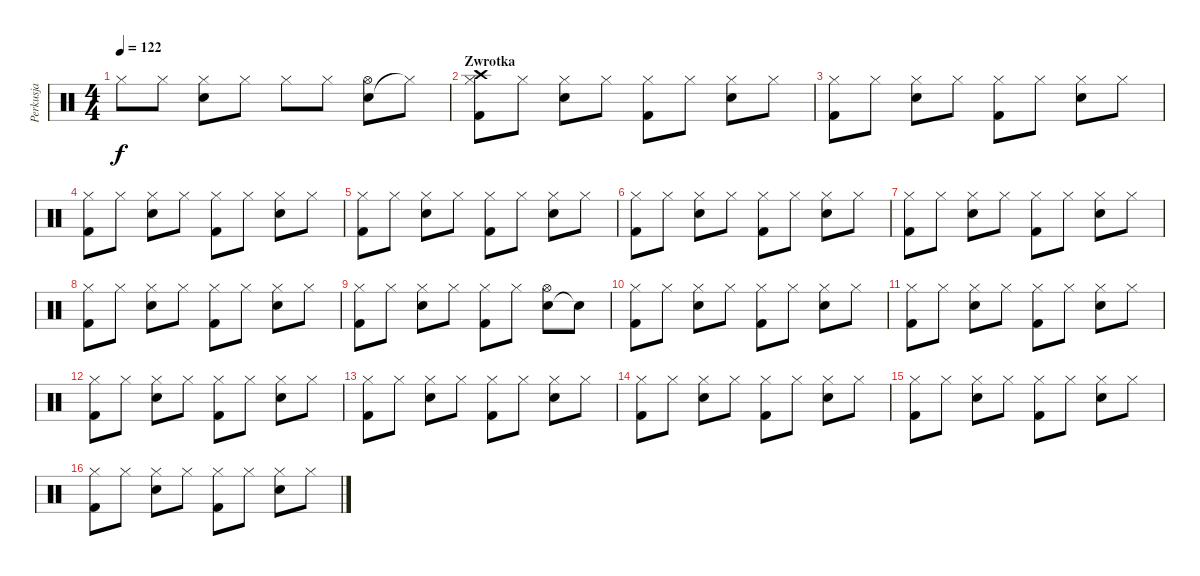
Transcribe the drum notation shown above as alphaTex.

\track ("Perkusja" "Perkusja") {instrument percussion}
\staff {score}
\articulation defaults
\ts (4 4)
\tempo 122
\clef neutral
\ks c "Hi-Hat (closed)".8{dy f} "Hi-Hat (closed)".8
("Snare (hit) 2" "Hi-Hat (closed)").8 "Hi-Hat (closed)".8 "Hi-Hat (closed)".8 "Hi-Hat (closed)".8 ("Snare (hit) 2" "Hi-Hat (open)").8 "Hi-Hat (closed)"{t}.8 |
\section ("" "Zwrotka")
("Kick (hit) 2" "Hi-Hat (closed)" "Crash high (hit)").8 "Hi-Hat (closed)".8 ("Snare (hit) 2" "Hi-Hat (closed)").8 "Hi-Hat (closed)".8 ("Kick (hit) 2" "Hi-Hat (closed)").8 "Hi-Hat (closed)".8 ("Snare (hit) 2" "Hi-Hat (closed)").8 "Hi-Hat (closed)".8 |
\section ("" "")
("Kick (hit) 2" "Hi-Hat (closed)").8 "Hi-Hat (closed)".8 ("Snare (hit) 2" "Hi-Hat (closed)").8 "Hi-Hat (closed)".8 ("Kick (hit) 2" "Hi-Hat (closed)").8 "Hi-Hat (closed)".8 ("Snare (hit) 2" "Hi-Hat (closed)").8 "Hi-Hat (closed)".8 |
("Kick (hit) 2" "Hi-Hat (closed)").8 "Hi-Hat (closed)".8 ("Snare (hit) 2" "Hi-Hat (closed)").8 "Hi-Hat (closed)".8 ("Kick (hit) 2" "Hi-Hat (closed)").8 "Hi-Hat (closed)".8 ("Snare (hit) 2" "Hi-Hat (closed)").8 "Hi-Hat (closed)".8 |
("Kick (hit) 2" "Hi-Hat (closed)").8 "Hi-Hat (closed)".8 ("Snare (hit) 2" "Hi-Hat (closed)").8 "Hi-Hat (closed)".8 ("Kick (hit) 2" "Hi-Hat (closed)").8 "Hi-Hat (closed)".8 ("Snare (hit) 2" "Hi-Hat (closed)").8 "Hi-Hat (closed)".8 |
("Kick (hit) 2" "Hi-Hat (closed)").8 "Hi-Hat (closed)".8 ("Snare (hit) 2" "Hi-Hat (closed)").8 "Hi-Hat (closed)".8 ("Kick (hit) 2" "Hi-Hat (closed)").8 "Hi-Hat (closed)".8 ("Snare (hit) 2" "Hi-Hat (closed)").8 "Hi-Hat (closed)".8 |
("Kick (hit) 2" "Hi-Hat (closed)").8 "Hi-Hat (closed)".8 ("Snare (hit) 2" "Hi-Hat (closed)").8 "Hi-Hat (closed)".8 ("Kick (hit) 2" "Hi-Hat (closed)").8 "Hi-Hat (closed)".8 ("Snare (hit) 2" "Hi-Hat (closed)").8 "Hi-Hat (closed)".8 |
("Kick (hit) 2" "Hi-Hat (closed)").8 "Hi-Hat (closed)".8 ("Snare (hit) 2" "Hi-Hat (closed)").8 "Hi-Hat (closed)".8 ("Kick (hit) 2" "Hi-Hat (closed)").8 "Hi-Hat (closed)".8 ("Snare (hit) 2" "Hi-Hat (closed)").8 "Hi-Hat (closed)".8 |
("Kick (hit) 2" "Hi-Hat (closed)").8 "Hi-Hat (closed)".8 ("Snare (hit) 2" "Hi-Hat (closed)").8 "Hi-Hat (closed)".8 ("Kick (hit) 2" "Hi-Hat (closed)").8 "Hi-Hat (closed)".8 ("Snare (hit) 2" "Hi-Hat (open)").8 "Snare (hit)"{t}.8 |
("Kick (hit) 2" "Hi-Hat (closed)").8 "Hi-Hat (closed)".8 ("Snare (hit) 2" "Hi-Hat (closed)").8 "Hi-Hat (closed)".8 ("Kick (hit) 2" "Hi-Hat (closed)").8 "Hi-Hat (closed)".8 ("Snare (hit) 2" "Hi-Hat (closed)").8 "Hi-Hat (closed)".8 |
("Kick (hit) 2" "Hi-Hat (closed)").8 "Hi-Hat (closed)".8 ("Snare (hit) 2" "Hi-Hat (closed)").8 "Hi-Hat (closed)".8 ("Kick (hit) 2" "Hi-Hat (closed)").8 "Hi-Hat (closed)".8 ("Snare (hit) 2" "Hi-Hat (closed)").8 "Hi-Hat (closed)".8 |
("Kick (hit) 2" "Hi-Hat (closed)").8 "Hi-Hat (closed)".8 ("Snare (hit) 2" "Hi-Hat (closed)").8 "Hi-Hat (closed)".8 ("Kick (hit) 2" "Hi-Hat (closed)").8 "Hi-Hat (closed)".8 ("Snare (hit) 2" "Hi-Hat (closed)").8 "Hi-Hat (closed)".8 |
("Kick (hit) 2" "Hi-Hat (closed)").8 "Hi-Hat (closed)".8 ("Snare (hit) 2" "Hi-Hat (closed)").8 "Hi-Hat (closed)".8 ("Kick (hit) 2" "Hi-Hat (closed)").8 "Hi-Hat (closed)".8 ("Snare (hit) 2" "Hi-Hat (closed)").8 "Hi-Hat (closed)".8 |
("Kick (hit) 2" "Hi-Hat (closed)").8 "Hi-Hat (closed)".8 ("Snare (hit) 2" "Hi-Hat (closed)").8 "Hi-Hat (closed)".8 ("Kick (hit) 2" "Hi-Hat (closed)").8 "Hi-Hat (closed)".8 ("Snare (hit) 2" "Hi-Hat (closed)").8 "Hi-Hat (closed)".8 |
("Kick (hit) 2" "Hi-Hat (closed)").8 "Hi-Hat (closed)".8 ("Snare (hit) 2" "Hi-Hat (closed)").8 "Hi-Hat (closed)".8 ("Kick (hit) 2" "Hi-Hat (closed)").8 "Hi-Hat (closed)".8 ("Snare (hit) 2" "Hi-Hat (closed)").8 "Hi-Hat (closed)".8 |
("Kick (hit) 2" "Hi-Hat (closed)").8 "Hi-Hat (closed)".8 ("Snare (hit) 2" "Hi-Hat (closed)").8 "Hi-Hat (closed)".8 ("Kick (hit) 2" "Hi-Hat (closed)").8 "Hi-Hat (closed)".8 ("Snare (hit) 2" "Hi-Hat (closed)").8 "Hi-Hat (closed)".8
